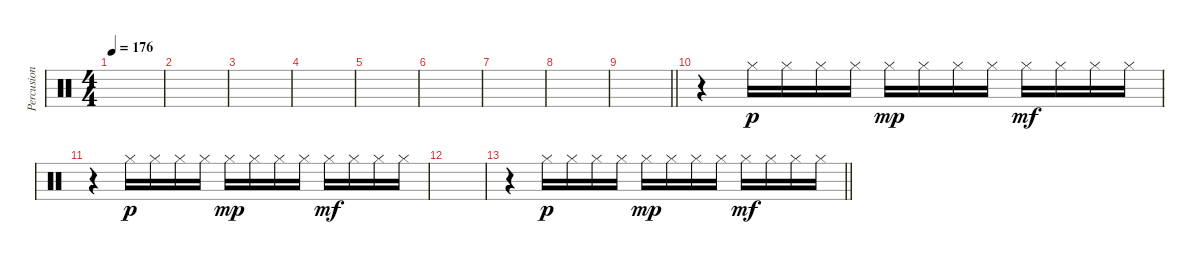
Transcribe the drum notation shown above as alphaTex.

\track ("Percusion" "Percusion") {instrument percussion}
\staff {score}
\articulation defaults
\ts (4 4)
\tempo 176
\clef neutral
\ks c
|
|
|
|
|
|
|
|
\barLineRight lightlight
|
r.4 "Hi-Hat (closed)".16{dy p} "Hi-Hat (closed)".16 "Hi-Hat (closed)".16 "Hi-Hat (closed)".16 "Hi-Hat (closed)".16{dy mp} "Hi-Hat (closed)".16 "Hi-Hat (closed)".16 "Hi-Hat (closed)".16 "Hi-Hat (closed)".16{dy mf} "Hi-Hat (closed)".16 "Hi-Hat (closed)".16 "Hi-Hat (closed)".16 |
r.4 "Hi-Hat (closed)".16{dy p} "Hi-Hat (closed)".16 "Hi-Hat (closed)".16 "Hi-Hat (closed)".16 "Hi-Hat (closed)".16{dy mp} "Hi-Hat (closed)".16 "Hi-Hat (closed)".16 "Hi-Hat (closed)".16 "Hi-Hat (closed)".16{dy mf} "Hi-Hat (closed)".16 "Hi-Hat (closed)".16 "Hi-Hat (closed)".16 |
|
\barLineRight lightlight
r.4 "Hi-Hat (closed)".16{dy p} "Hi-Hat (closed)".16 "Hi-Hat (closed)".16 "Hi-Hat (closed)".16 "Hi-Hat (closed)".16{dy mp} "Hi-Hat (closed)".16 "Hi-Hat (closed)".16 "Hi-Hat (closed)".16 "Hi-Hat (closed)".16{dy mf} "Hi-Hat (closed)".16 "Hi-Hat (closed)".16 "Hi-Hat (closed)".16
